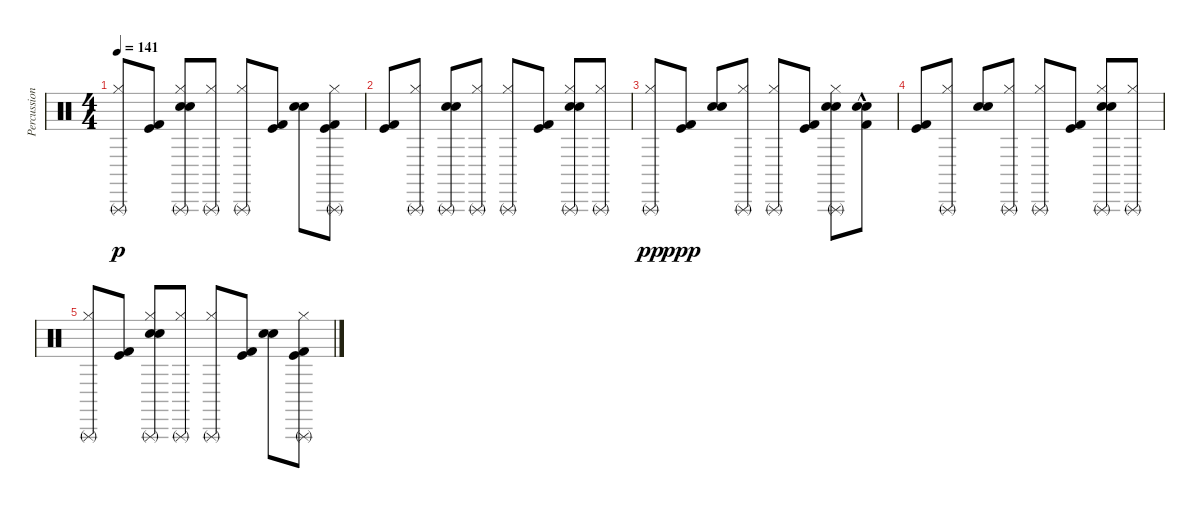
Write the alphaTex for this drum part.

\track ("Percussion" "Percussion") {instrument percussion}
\staff {score}
\articulation defaults
\ts (4 4)
\tempo 141
\clef neutral
\ks c
("Hi-Hat (closed)" "Triangle (rnute)").8{dy p} ("Kick (hit)" "Kick (hit) 2").8 ("Snare (hit) 2" "Electric Snare (hit)" "Hi-Hat (closed)" "Triangle (rnute)").8 ("Hi-Hat (closed)" "Triangle (rnute)").8 ("Hi-Hat (closed)" "Triangle (rnute)").8 ("Kick (hit)" "Kick (hit) 2").8 ("Snare (hit) 2" "Electric Snare (hit)").8 ("Kick (hit)" "Kick (hit) 2" "Hi-Hat (closed)" "Triangle (rnute)").8 |
("Kick (hit)" "Kick (hit) 2").8 ("Hi-Hat (closed)" "Triangle (rnute)").8 ("Snare (hit) 2" "Electric Snare (hit)" "Triangle (rnute)").8 ("Hi-Hat (closed)" "Triangle (rnute)").8 ("Hi-Hat (closed)" "Triangle (rnute)").8 ("Kick (hit)" "Kick (hit) 2").8 ("Snare (hit) 2" "Electric Snare (hit)" "Hi-Hat (closed)" "Triangle (rnute)").8 ("Hi-Hat (closed)" "Triangle (rnute)").8 |
("Hi-Hat (closed)" "Triangle (rnute)").8{dy pp} ("Kick (hit)" "Kick (hit) 2").8{dy ppp} ("Snare (hit) 2" "Electric Snare (hit)").8 ("Hi-Hat (closed)" "Triangle (rnute)").8 ("Hi-Hat (closed)" "Triangle (rnute)").8 ("Kick (hit)" "Kick (hit) 2").8 ("Snare (hit) 2" "Electric Snare (hit)" "Hi-Hat (closed)" "Triangle (rnute)").8 ("Kick (hit) 2" "Snare (hit) 2" "Electric Snare (hit)"{hac}).8 |
("Kick (hit)" "Kick (hit) 2").8 ("Hi-Hat (closed)" "Triangle (rnute)").8 ("Snare (hit) 2" "Electric Snare (hit)").8 ("Hi-Hat (closed)" "Triangle (rnute)").8 ("Hi-Hat (closed)" "Triangle (rnute)").8 ("Kick (hit)" "Kick (hit) 2").8 ("Snare (hit) 2" "Electric Snare (hit)" "Hi-Hat (closed)" "Triangle (rnute)").8 ("Hi-Hat (closed)" "Triangle (rnute)").8 |
("Hi-Hat (closed)" "Triangle (rnute)").8 ("Kick (hit)" "Kick (hit) 2").8 ("Snare (hit) 2" "Electric Snare (hit)" "Hi-Hat (closed)" "Triangle (rnute)").8 ("Hi-Hat (closed)" "Triangle (rnute)").8 ("Hi-Hat (closed)" "Triangle (rnute)").8 ("Kick (hit)" "Kick (hit) 2").8 ("Snare (hit) 2" "Electric Snare (hit)").8 ("Kick (hit)" "Kick (hit) 2" "Hi-Hat (closed)" "Triangle (rnute)").8
